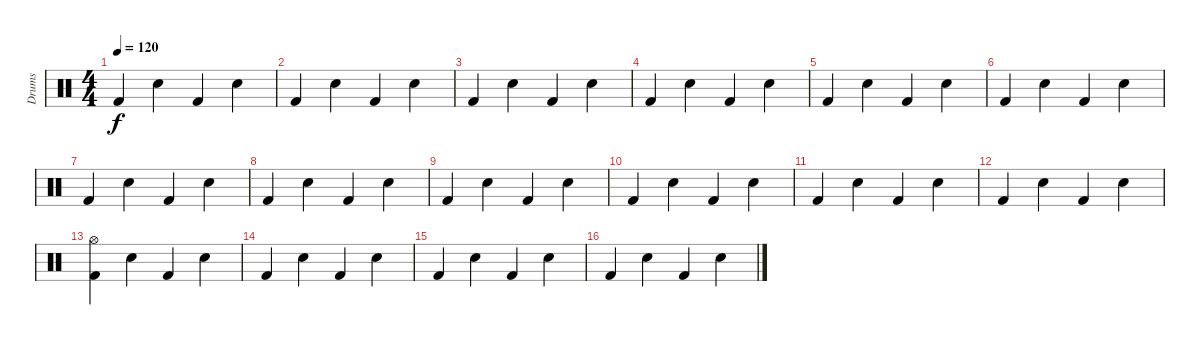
\track ("Drums" "Drums") {instrument percussion}
\staff {score}
\articulation defaults
\ts (4 4)
\tempo 120
\clef neutral
\ks c "Kick (hit) 2".4{dy f} "Electric Snare (hit)".4 "Kick (hit) 2".4 "Electric Snare (hit)".4
|
"Kick (hit) 2".4 "Electric Snare (hit)".4 "Kick (hit) 2".4 "Electric Snare (hit)".4 |
"Kick (hit) 2".4 "Electric Snare (hit)".4 "Kick (hit) 2".4 "Electric Snare (hit)".4 |
"Kick (hit) 2".4 "Electric Snare (hit)".4 "Kick (hit) 2".4 "Electric Snare (hit)".4 |
"Kick (hit) 2".4 "Electric Snare (hit)".4 "Kick (hit) 2".4 "Electric Snare (hit)".4 |
"Kick (hit) 2".4 "Electric Snare (hit)".4 "Kick (hit) 2".4 "Electric Snare (hit)".4 |
"Kick (hit) 2".4 "Electric Snare (hit)".4 "Kick (hit) 2".4 "Electric Snare (hit)".4 |
"Kick (hit) 2".4 "Electric Snare (hit)".4 "Kick (hit) 2".4 "Electric Snare (hit)".4 |
"Kick (hit) 2".4 "Electric Snare (hit)".4 "Kick (hit) 2".4 "Electric Snare (hit)".4 |
"Kick (hit) 2".4 "Electric Snare (hit)".4 "Kick (hit) 2".4 "Electric Snare (hit)".4 |
"Kick (hit) 2".4 "Electric Snare (hit)".4 "Kick (hit) 2".4 "Electric Snare (hit)".4 |
"Kick (hit) 2".4 "Electric Snare (hit)".4 "Kick (hit) 2".4 "Electric Snare (hit)".4 |
("Kick (hit) 2" "Hi-Hat (open)").4 "Electric Snare (hit)".4 "Kick (hit) 2".4 "Electric Snare (hit)".4 |
"Kick (hit) 2".4 "Electric Snare (hit)".4 "Kick (hit) 2".4 "Electric Snare (hit)".4 |
"Kick (hit) 2".4 "Electric Snare (hit)".4 "Kick (hit) 2".4 "Electric Snare (hit)".4 |
"Kick (hit) 2".4 "Electric Snare (hit)".4 "Kick (hit) 2".4 "Electric Snare (hit)".4
